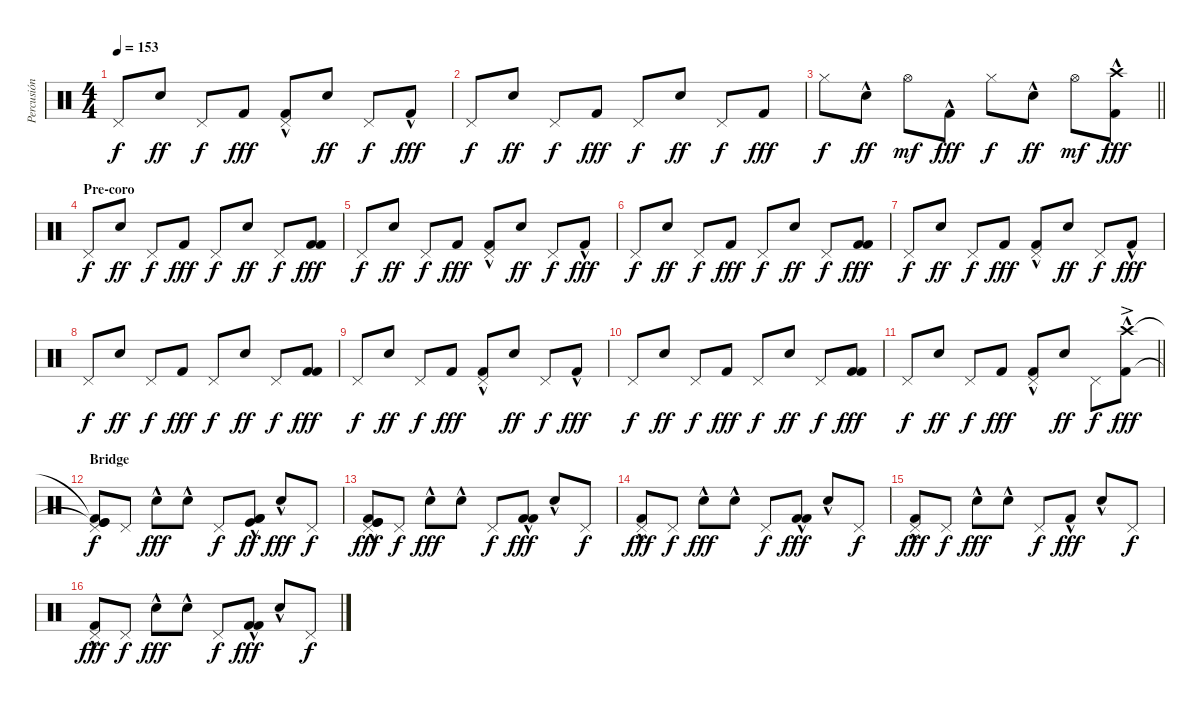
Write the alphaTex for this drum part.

\track ("Percusión (Javi Molina)" "Percusión ") {instrument percussion}
\staff {score}
\articulation defaults
\ts (4 4)
\tempo 153
\clef neutral
\ks c "Pedal Hi-Hat (hit)".8{dy f} "Electric Snare (hit)".8{dy ff} "Pedal Hi-Hat (hit)".8{dy f} "Kick (hit) 2".8{dy fff}
("Pedal Hi-Hat (hit)" "Kick (hit) 2"{hac}).8 "Electric Snare (hit)".8{dy ff} "Pedal Hi-Hat (hit)".8{dy f} "Kick (hit) 2"{hac}.8{dy fff} |
"Pedal Hi-Hat (hit)".8{dy f} "Electric Snare (hit)".8{dy ff} "Pedal Hi-Hat (hit)".8{dy f} "Kick (hit) 2".8{dy fff} "Pedal Hi-Hat (hit)".8{dy f} "Electric Snare (hit)".8{dy ff} "Pedal Hi-Hat (hit)".8{dy f} "Kick (hit) 2".8{dy fff} |
\barLineRight lightlight "Hi-Hat (closed)".8{dy f} "Snare (hit) 2"{hac}.8{dy ff} "Hi-Hat (open)".8{dy mf} "Kick (hit) 2"{hac}.8{dy fff} "Hi-Hat (closed)".8{dy f} "Snare (hit) 2"{hac}.8{dy ff} "Hi-Hat (open)".8{dy mf}
("Kick (hit) 2"{hac} "Crash high (hit)").8{dy fff} |
\section ("" "Pre-coro")
"Pedal Hi-Hat (hit)".8{dy f} "Electric Snare (hit)".8{dy ff} "Pedal Hi-Hat (hit)".8{dy f} "Kick (hit) 2".8{dy fff} "Pedal Hi-Hat (hit)".8{dy f} "Electric Snare (hit)".8{dy ff} "Pedal Hi-Hat (hit)".8{dy f} ("Kick (hit) 2" "Kick (hit) 2").8{dy fff} |
"Pedal Hi-Hat (hit)".8{dy f} "Electric Snare (hit)".8{dy ff} "Pedal Hi-Hat (hit)".8{dy f} "Kick (hit) 2".8{dy fff} ("Pedal Hi-Hat (hit)" "Kick (hit) 2"{hac}).8 "Electric Snare (hit)".8{dy ff} "Pedal Hi-Hat (hit)".8{dy f} "Kick (hit) 2"{hac}.8{dy fff} |
"Pedal Hi-Hat (hit)".8{dy f} "Electric Snare (hit)".8{dy ff} "Pedal Hi-Hat (hit)".8{dy f} "Kick (hit) 2".8{dy fff} "Pedal Hi-Hat (hit)".8{dy f} "Electric Snare (hit)".8{dy ff} "Pedal Hi-Hat (hit)".8{dy f} ("Kick (hit) 2" "Kick (hit) 2").8{dy fff} |
"Pedal Hi-Hat (hit)".8{dy f} "Electric Snare (hit)".8{dy ff} "Pedal Hi-Hat (hit)".8{dy f} "Kick (hit) 2".8{dy fff} ("Pedal Hi-Hat (hit)" "Kick (hit) 2"{hac}).8 "Electric Snare (hit)".8{dy ff} "Pedal Hi-Hat (hit)".8{dy f} "Kick (hit) 2"{hac}.8{dy fff} |
"Pedal Hi-Hat (hit)".8{dy f} "Electric Snare (hit)".8{dy ff} "Pedal Hi-Hat (hit)".8{dy f} "Kick (hit) 2".8{dy fff} "Pedal Hi-Hat (hit)".8{dy f} "Electric Snare (hit)".8{dy ff} "Pedal Hi-Hat (hit)".8{dy f} ("Kick (hit) 2" "Kick (hit) 2").8{dy fff} |
"Pedal Hi-Hat (hit)".8{dy f} "Electric Snare (hit)".8{dy ff} "Pedal Hi-Hat (hit)".8{dy f} "Kick (hit) 2".8{dy fff} ("Pedal Hi-Hat (hit)" "Kick (hit) 2"{hac}).8 "Electric Snare (hit)".8{dy ff} "Pedal Hi-Hat (hit)".8{dy f} "Kick (hit) 2"{hac}.8{dy fff} |
"Pedal Hi-Hat (hit)".8{dy f} "Electric Snare (hit)".8{dy ff} "Pedal Hi-Hat (hit)".8{dy f} "Kick (hit) 2".8{dy fff} "Pedal Hi-Hat (hit)".8{dy f} "Electric Snare (hit)".8{dy ff} "Pedal Hi-Hat (hit)".8{dy f} ("Kick (hit) 2" "Kick (hit) 2").8{dy fff} |
\barLineRight lightlight "Pedal Hi-Hat (hit)".8{dy f} "Electric Snare (hit)".8{dy ff} "Pedal Hi-Hat (hit)".8{dy f} "Kick (hit) 2".8{dy fff}
("Pedal Hi-Hat (hit)" "Kick (hit) 2"{hac}).8 "Electric Snare (hit)".8{dy ff} "Pedal Hi-Hat (hit)".8{dy f} ("Kick (hit) 2"{hac} "Crash high (hit)"{ac}).8{dy fff} |
\section ("" "Bridge")
("Kick (hit)"{t} "Kick (hit) 2"{t} "Kick (hit)" "Pedal Hi-Hat (hit)").8{dy f} "Pedal Hi-Hat (hit)".8 "Electric Snare (hit)"{hac}.8{dy fff} "Electric Snare (hit)"{hac}.8 "Pedal Hi-Hat (hit)".8{dy f} ("Kick (hit) 2"{hac} "Kick (hit) 2"{hac} "Kick (hit)"{hac}).8{dy ff} "Electric Snare (hit)"{hac}.8{dy fff} "Pedal Hi-Hat (hit)".8{dy f} |
("Kick (hit)"{hac} "Kick (hit) 2"{hac} "Kick (hit)"{hac} "Pedal Hi-Hat (hit)").8{dy fff} "Pedal Hi-Hat (hit)".8{dy f} "Electric Snare (hit)"{hac}.8{dy fff} "Electric Snare (hit)"{hac}.8 "Pedal Hi-Hat (hit)".8{dy f} ("Kick (hit) 2"{hac} "Kick (hit) 2"{hac}).8{dy fff} "Electric Snare (hit)"{hac}.8 "Pedal Hi-Hat (hit)".8{dy f} |
("Kick (hit) 2"{hac} "Pedal Hi-Hat (hit)").8{dy fff} "Pedal Hi-Hat (hit)".8{dy f} "Electric Snare (hit)"{hac}.8{dy fff} "Electric Snare (hit)"{hac}.8 "Pedal Hi-Hat (hit)".8{dy f} ("Kick (hit) 2"{hac} "Kick (hit) 2"{hac}).8{dy fff} "Electric Snare (hit)"{hac}.8 "Pedal Hi-Hat (hit)".8{dy f} |
("Kick (hit) 2"{hac} "Pedal Hi-Hat (hit)").8{dy fff} "Pedal Hi-Hat (hit)".8{dy f} "Electric Snare (hit)"{hac}.8{dy fff} "Electric Snare (hit)"{hac}.8 "Pedal Hi-Hat (hit)".8{dy f} "Kick (hit) 2"{hac}.8{dy fff} "Electric Snare (hit)"{hac}.8 "Pedal Hi-Hat (hit)".8{dy f} |
("Kick (hit) 2"{hac} "Pedal Hi-Hat (hit)").8{dy fff} "Pedal Hi-Hat (hit)".8{dy f} "Electric Snare (hit)"{hac}.8{dy fff} "Electric Snare (hit)"{hac}.8 "Pedal Hi-Hat (hit)".8{dy f} ("Kick (hit) 2"{hac} "Kick (hit) 2"{hac}).8{dy fff} "Electric Snare (hit)"{hac}.8 "Pedal Hi-Hat (hit)".8{dy f}
